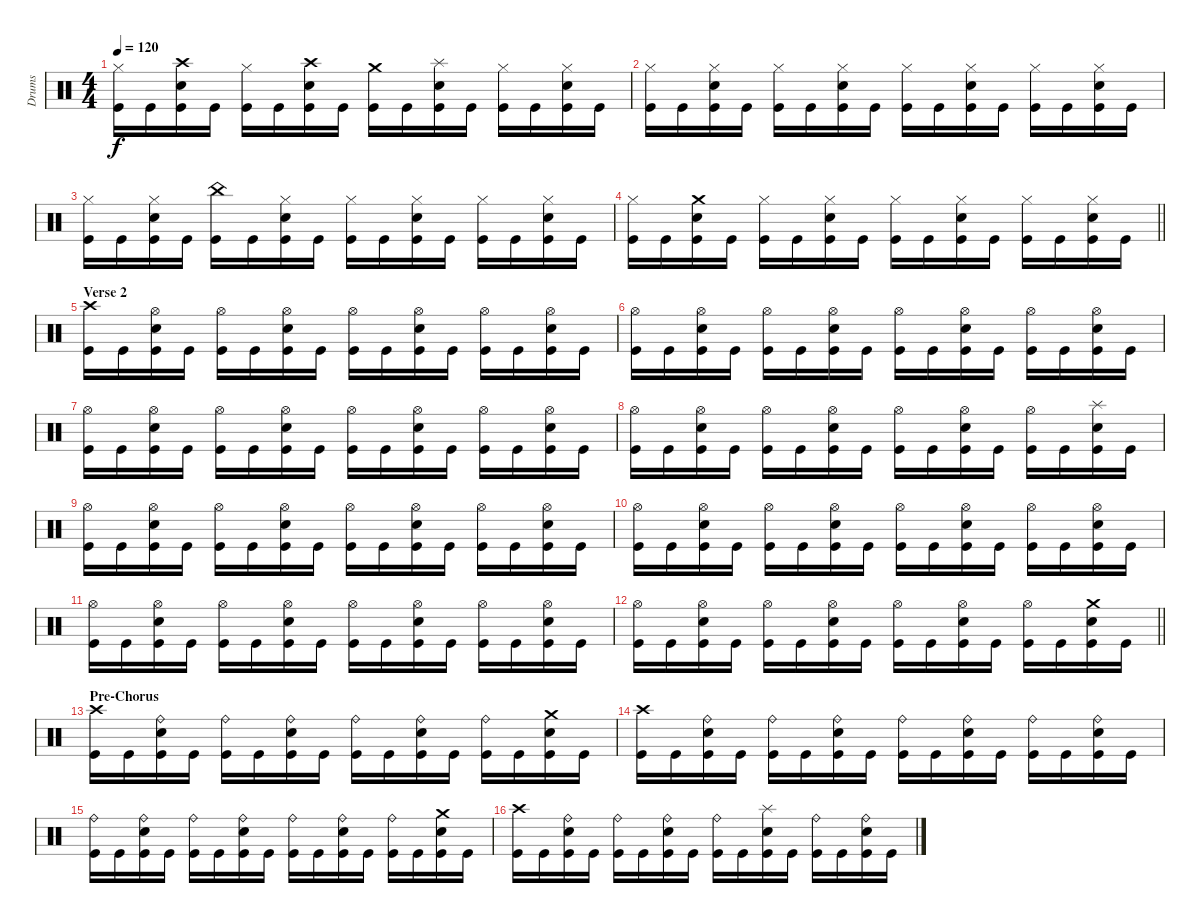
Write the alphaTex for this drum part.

\track ("Drums" "Drums") {instrument percussion}
\staff {score}
\articulation defaults
\ts (4 4)
\tempo 120
\clef neutral
\ks c
("Hi-Hat (closed)" "Kick (hit)").16{dy f} "Kick (hit)".16 ("Crash high (hit)" "Electric Snare (hit)" "Kick (hit)").16 "Kick (hit)".16 ("Hi-Hat (closed)" "Kick (hit)").16 "Kick (hit)".16 ("Crash high (hit)" "Electric Snare (hit)" "Kick (hit)").16 "Kick (hit)".16 ("Crash medium (hit)" "Kick (hit)").16 "Kick (hit)".16 ("Splash (hit)" "Electric Snare (hit)" "Kick (hit)").16 "Kick (hit)".16 ("Hi-Hat (closed)" "Kick (hit)").16 "Kick (hit)".16 ("Hi-Hat (closed)" "Electric Snare (hit)" "Kick (hit)").16 "Kick (hit)".16 |
("Hi-Hat (closed)" "Kick (hit)").16 "Kick (hit)".16 ("Hi-Hat (closed)" "Electric Snare (hit)" "Kick (hit)").16 "Kick (hit)".16 ("Hi-Hat (closed)" "Kick (hit)").16 "Kick (hit)".16 ("Hi-Hat (closed)" "Electric Snare (hit)" "Kick (hit)").16 "Kick (hit)".16 ("Hi-Hat (closed)" "Kick (hit)").16 "Kick (hit)".16 ("Hi-Hat (closed)" "Electric Snare (hit)" "Kick (hit)").16 "Kick (hit)".16 ("Hi-Hat (closed)" "Kick (hit)").16 "Kick (hit)".16 ("Hi-Hat (closed)" "Electric Snare (hit)" "Kick (hit)").16 "Kick (hit)".16 |
("Hi-Hat (closed)" "Kick (hit)").16 "Kick (hit)".16 ("Hi-Hat (closed)" "Electric Snare (hit)" "Kick (hit)").16 "Kick (hit)".16 ("China (hit)" "Kick (hit)").16 "Kick (hit)".16 ("Hi-Hat (closed)" "Electric Snare (hit)" "Kick (hit)").16 "Kick (hit)".16 ("Hi-Hat (closed)" "Kick (hit)").16 "Kick (hit)".16 ("Hi-Hat (closed)" "Electric Snare (hit)" "Kick (hit)").16 "Kick (hit)".16 ("Hi-Hat (closed)" "Kick (hit)").16 "Kick (hit)".16 ("Hi-Hat (closed)" "Electric Snare (hit)" "Kick (hit)").16 "Kick (hit)".16 |
\barLineRight lightlight
("Hi-Hat (closed)" "Kick (hit)").16 "Kick (hit)".16 ("Crash medium (hit)" "Electric Snare (hit)" "Kick (hit)").16 "Kick (hit)".16 ("Hi-Hat (closed)" "Kick (hit)").16 "Kick (hit)".16 ("Hi-Hat (closed)" "Electric Snare (hit)" "Kick (hit)").16 "Kick (hit)".16 ("Hi-Hat (closed)" "Kick (hit)").16 "Kick (hit)".16 ("Hi-Hat (closed)" "Electric Snare (hit)" "Kick (hit)").16 "Kick (hit)".16 ("Hi-Hat (closed)" "Kick (hit)").16 "Kick (hit)".16 ("Hi-Hat (closed)" "Electric Snare (hit)" "Kick (hit)").16 "Kick (hit)".16 |
\section ("" "Verse 2")
("Crash high (hit)" "Kick (hit)").16 "Kick (hit)".16 ("Hi-Hat (open)" "Electric Snare (hit)" "Kick (hit)").16 "Kick (hit)".16 ("Hi-Hat (open)" "Kick (hit)").16 "Kick (hit)".16 ("Hi-Hat (open)" "Electric Snare (hit)" "Kick (hit)").16 "Kick (hit)".16 ("Hi-Hat (open)" "Kick (hit)").16 "Kick (hit)".16 ("Hi-Hat (open)" "Electric Snare (hit)" "Kick (hit)").16 "Kick (hit)".16 ("Hi-Hat (open)" "Kick (hit)").16 "Kick (hit)".16 ("Hi-Hat (open)" "Electric Snare (hit)" "Kick (hit)").16 "Kick (hit)".16 |
("Hi-Hat (open)" "Kick (hit)").16 "Kick (hit)".16 ("Hi-Hat (open)" "Electric Snare (hit)" "Kick (hit)").16 "Kick (hit)".16 ("Hi-Hat (open)" "Kick (hit)").16 "Kick (hit)".16 ("Hi-Hat (open)" "Electric Snare (hit)" "Kick (hit)").16 "Kick (hit)".16 ("Hi-Hat (open)" "Kick (hit)").16 "Kick (hit)".16 ("Hi-Hat (open)" "Electric Snare (hit)" "Kick (hit)").16 "Kick (hit)".16 ("Hi-Hat (open)" "Kick (hit)").16 "Kick (hit)".16 ("Hi-Hat (open)" "Electric Snare (hit)" "Kick (hit)").16 "Kick (hit)".16 |
("Hi-Hat (open)" "Kick (hit)").16 "Kick (hit)".16 ("Hi-Hat (open)" "Electric Snare (hit)" "Kick (hit)").16 "Kick (hit)".16 ("Hi-Hat (open)" "Kick (hit)").16 "Kick (hit)".16 ("Hi-Hat (open)" "Electric Snare (hit)" "Kick (hit)").16 "Kick (hit)".16 ("Hi-Hat (open)" "Kick (hit)").16 "Kick (hit)".16 ("Hi-Hat (open)" "Electric Snare (hit)" "Kick (hit)").16 "Kick (hit)".16 ("Hi-Hat (open)" "Kick (hit)").16 "Kick (hit)".16 ("Hi-Hat (open)" "Electric Snare (hit)" "Kick (hit)").16 "Kick (hit)".16 |
("Hi-Hat (open)" "Kick (hit)").16 "Kick (hit)".16 ("Hi-Hat (open)" "Electric Snare (hit)" "Kick (hit)").16 "Kick (hit)".16 ("Hi-Hat (open)" "Kick (hit)").16 "Kick (hit)".16 ("Hi-Hat (open)" "Electric Snare (hit)" "Kick (hit)").16 "Kick (hit)".16 ("Hi-Hat (open)" "Kick (hit)").16 "Kick (hit)".16 ("Hi-Hat (open)" "Electric Snare (hit)" "Kick (hit)").16 "Kick (hit)".16 ("Hi-Hat (open)" "Kick (hit)").16 "Kick (hit)".16 ("Splash (hit)" "Electric Snare (hit)" "Kick (hit)").16 "Kick (hit)".16 |
("Hi-Hat (open)" "Kick (hit)").16 "Kick (hit)".16 ("Hi-Hat (open)" "Electric Snare (hit)" "Kick (hit)").16 "Kick (hit)".16 ("Hi-Hat (open)" "Kick (hit)").16 "Kick (hit)".16 ("Hi-Hat (open)" "Electric Snare (hit)" "Kick (hit)").16 "Kick (hit)".16 ("Hi-Hat (open)" "Kick (hit)").16 "Kick (hit)".16 ("Hi-Hat (open)" "Electric Snare (hit)" "Kick (hit)").16 "Kick (hit)".16 ("Hi-Hat (open)" "Kick (hit)").16 "Kick (hit)".16 ("Hi-Hat (open)" "Electric Snare (hit)" "Kick (hit)").16 "Kick (hit)".16 |
("Hi-Hat (open)" "Kick (hit)").16 "Kick (hit)".16 ("Hi-Hat (open)" "Electric Snare (hit)" "Kick (hit)").16 "Kick (hit)".16 ("Hi-Hat (open)" "Kick (hit)").16 "Kick (hit)".16 ("Hi-Hat (open)" "Electric Snare (hit)" "Kick (hit)").16 "Kick (hit)".16 ("Hi-Hat (open)" "Kick (hit)").16 "Kick (hit)".16 ("Hi-Hat (open)" "Electric Snare (hit)" "Kick (hit)").16 "Kick (hit)".16 ("Hi-Hat (open)" "Kick (hit)").16 "Kick (hit)".16 ("Hi-Hat (open)" "Electric Snare (hit)" "Kick (hit)").16 "Kick (hit)".16 |
("Hi-Hat (open)" "Kick (hit)").16 "Kick (hit)".16 ("Hi-Hat (open)" "Electric Snare (hit)" "Kick (hit)").16 "Kick (hit)".16 ("Hi-Hat (open)" "Kick (hit)").16 "Kick (hit)".16 ("Hi-Hat (open)" "Electric Snare (hit)" "Kick (hit)").16 "Kick (hit)".16 ("Hi-Hat (open)" "Kick (hit)").16 "Kick (hit)".16 ("Hi-Hat (open)" "Electric Snare (hit)" "Kick (hit)").16 "Kick (hit)".16 ("Hi-Hat (open)" "Kick (hit)").16 "Kick (hit)".16 ("Hi-Hat (open)" "Electric Snare (hit)" "Kick (hit)").16 "Kick (hit)".16 |
\barLineRight lightlight
("Hi-Hat (open)" "Kick (hit)").16 "Kick (hit)".16 ("Hi-Hat (open)" "Electric Snare (hit)" "Kick (hit)").16 "Kick (hit)".16 ("Hi-Hat (open)" "Kick (hit)").16 "Kick (hit)".16 ("Hi-Hat (open)" "Electric Snare (hit)" "Kick (hit)").16 "Kick (hit)".16 ("Hi-Hat (open)" "Kick (hit)").16 "Kick (hit)".16 ("Hi-Hat (open)" "Electric Snare (hit)" "Kick (hit)").16 "Kick (hit)".16 ("Hi-Hat (open)" "Kick (hit)").16 "Kick (hit)".16 ("Crash medium (hit)" "Electric Snare (hit)" "Kick (hit)").16 "Kick (hit)".16 |
\section ("" "Pre-Chorus")
("Crash high (hit)" "Kick (hit)").16 "Kick (hit)".16 ("Ride (bell)" "Electric Snare (hit)" "Kick (hit)").16 "Kick (hit)".16 ("Ride (bell)" "Kick (hit)").16 "Kick (hit)".16 ("Ride (bell)" "Electric Snare (hit)" "Kick (hit)").16 "Kick (hit)".16 ("Ride (bell)" "Kick (hit)").16 "Kick (hit)".16 ("Ride (bell)" "Electric Snare (hit)" "Kick (hit)").16 "Kick (hit)".16 ("Ride (bell)" "Kick (hit)").16 "Kick (hit)".16 ("Crash medium (hit)" "Electric Snare (hit)" "Kick (hit)").16 "Kick (hit)".16 |
("Crash high (hit)" "Kick (hit)").16 "Kick (hit)".16 ("Ride (bell)" "Electric Snare (hit)" "Kick (hit)").16 "Kick (hit)".16 ("Ride (bell)" "Kick (hit)").16 "Kick (hit)".16 ("Ride (bell)" "Electric Snare (hit)" "Kick (hit)").16 "Kick (hit)".16 ("Ride (bell)" "Kick (hit)").16 "Kick (hit)".16 ("Ride (bell)" "Electric Snare (hit)" "Kick (hit)").16 "Kick (hit)".16 ("Ride (bell)" "Kick (hit)").16 "Kick (hit)".16 ("Ride (bell)" "Electric Snare (hit)" "Kick (hit)").16 "Kick (hit)".16 |
("Ride (bell)" "Kick (hit)").16 "Kick (hit)".16 ("Ride (bell)" "Electric Snare (hit)" "Kick (hit)").16 "Kick (hit)".16 ("Ride (bell)" "Kick (hit)").16 "Kick (hit)".16 ("Ride (bell)" "Electric Snare (hit)" "Kick (hit)").16 "Kick (hit)".16 ("Ride (bell)" "Kick (hit)").16 "Kick (hit)".16 ("Ride (bell)" "Electric Snare (hit)" "Kick (hit)").16 "Kick (hit)".16 ("Ride (bell)" "Kick (hit)").16 "Kick (hit)".16 ("Crash medium (hit)" "Electric Snare (hit)" "Kick (hit)").16 "Kick (hit)".16 |
("Crash high (hit)" "Kick (hit)").16 "Kick (hit)".16 ("Ride (bell)" "Electric Snare (hit)" "Kick (hit)").16 "Kick (hit)".16 ("Ride (bell)" "Kick (hit)").16 "Kick (hit)".16 ("Ride (bell)" "Electric Snare (hit)" "Kick (hit)").16 "Kick (hit)".16 ("Ride (bell)" "Kick (hit)").16 "Kick (hit)".16 ("Splash (hit)" "Electric Snare (hit)" "Kick (hit)").16 "Kick (hit)".16 ("Ride (bell)" "Kick (hit)").16 "Kick (hit)".16 ("Ride (bell)" "Electric Snare (hit)" "Kick (hit)").16 "Kick (hit)".16
